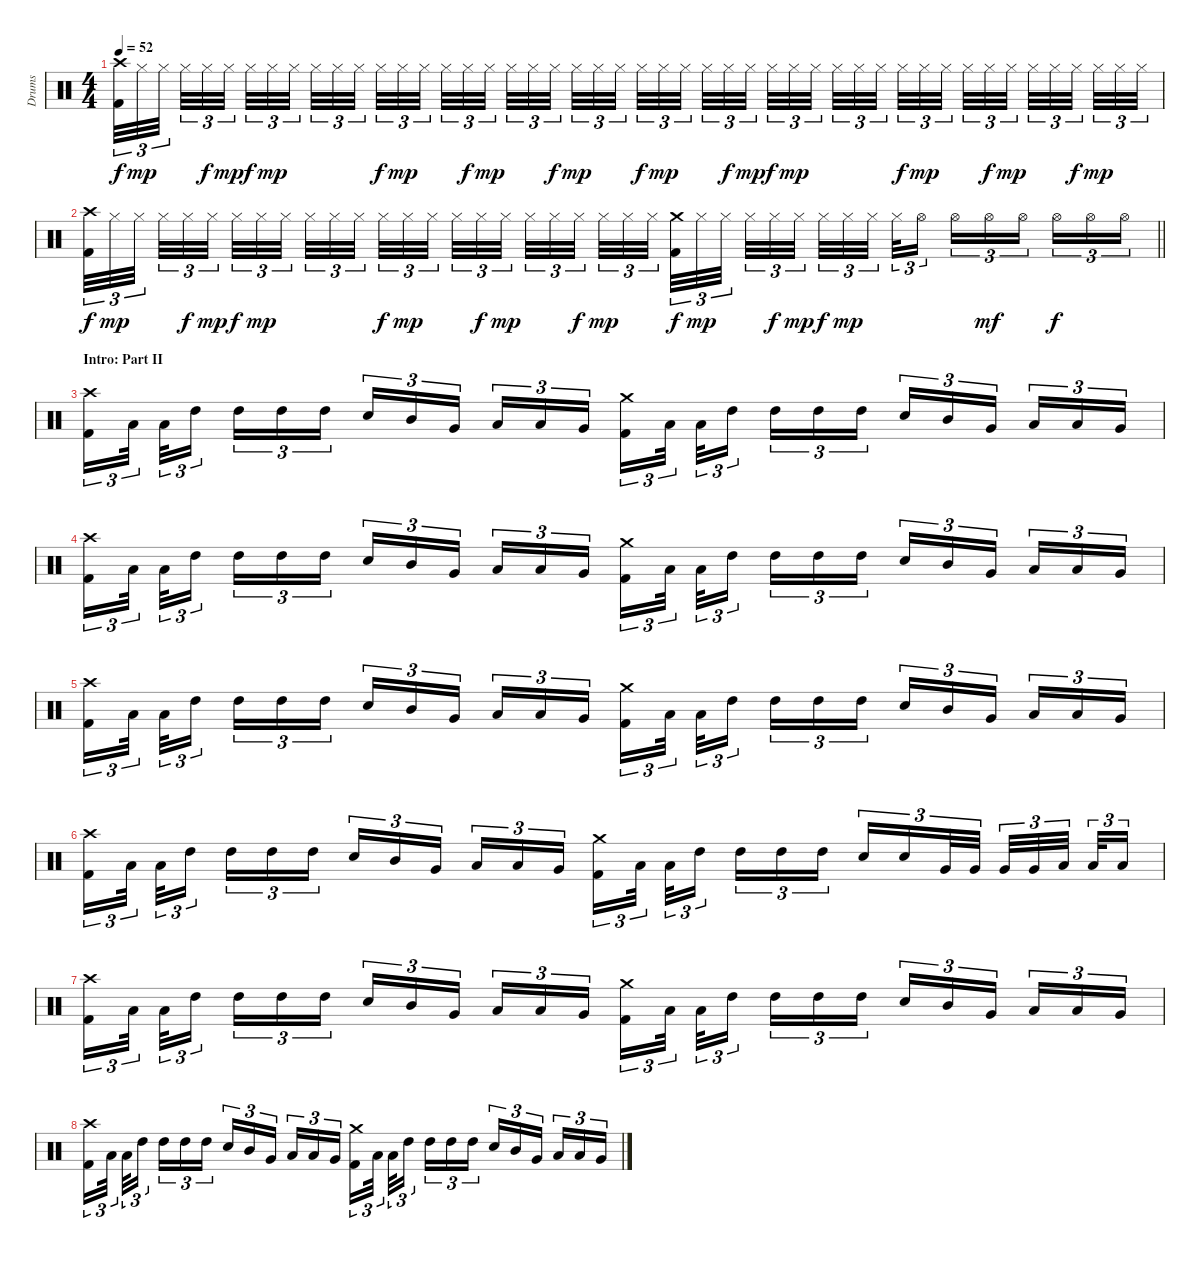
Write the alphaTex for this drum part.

\track ("Drums" "Drums") {instrument percussion}
\staff {score}
\articulation defaults
\ts (4 4)
\tempo 52
\clef neutral
\ks c
("Crash high (hit)" "Kick (hit) 2").32{tu (3 2) dy f} "Hi-Hat (closed)".32{tu (3 2) dy mp} "Hi-Hat (closed)".32{tu (3 2) beam splitsecondary} "Hi-Hat (closed)".32{tu (3 2)} "Hi-Hat (closed)".32{tu (3 2) dy f} "Hi-Hat (closed)".32{tu (3 2) dy mp beam splitsecondary} "Hi-Hat (closed)".32{tu (3 2) dy f} "Hi-Hat (closed)".32{tu (3 2) dy mp} "Hi-Hat (closed)".32{tu (3 2) beam splitsecondary} "Hi-Hat (closed)".32{tu (3 2)} "Hi-Hat (closed)".32{tu (3 2)} "Hi-Hat (closed)".32{tu (3 2)} "Hi-Hat (closed)".32{tu (3 2) dy f} "Hi-Hat (closed)".32{tu (3 2) dy mp} "Hi-Hat (closed)".32{tu (3 2) beam splitsecondary} "Hi-Hat (closed)".32{tu (3 2)} "Hi-Hat (closed)".32{tu (3 2) dy f} "Hi-Hat (closed)".32{tu (3 2) dy mp beam splitsecondary} "Hi-Hat (closed)".32{tu (3 2)} "Hi-Hat (closed)".32{tu (3 2)} "Hi-Hat (closed)".32{tu (3 2) dy f beam splitsecondary} "Hi-Hat (closed)".32{tu (3 2) dy mp} "Hi-Hat (closed)".32{tu (3 2)} "Hi-Hat (closed)".32{tu (3 2)} "Hi-Hat (closed)".32{tu (3 2) dy f} "Hi-Hat (closed)".32{tu (3 2) dy mp} "Hi-Hat (closed)".32{tu (3 2) beam splitsecondary} "Hi-Hat (closed)".32{tu (3 2)} "Hi-Hat (closed)".32{tu (3 2) dy f} "Hi-Hat (closed)".32{tu (3 2) dy mp beam splitsecondary} "Hi-Hat (closed)".32{tu (3 2) dy f} "Hi-Hat (closed)".32{tu (3 2) dy mp} "Hi-Hat (closed)".32{tu (3 2) beam splitsecondary} "Hi-Hat (closed)".32{tu (3 2)} "Hi-Hat (closed)".32{tu (3 2)} "Hi-Hat (closed)".32{tu (3 2)} "Hi-Hat (closed)".32{tu (3 2) dy f} "Hi-Hat (closed)".32{tu (3 2) dy mp} "Hi-Hat (closed)".32{tu (3 2) beam splitsecondary} "Hi-Hat (closed)".32{tu (3 2)} "Hi-Hat (closed)".32{tu (3 2) dy f} "Hi-Hat (closed)".32{tu (3 2) dy mp beam splitsecondary} "Hi-Hat (closed)".32{tu (3 2)} "Hi-Hat (closed)".32{tu (3 2)} "Hi-Hat (closed)".32{tu (3 2) dy f beam splitsecondary} "Hi-Hat (closed)".32{tu (3 2) dy mp} "Hi-Hat (closed)".32{tu (3 2)} "Hi-Hat (closed)".32{tu (3 2)} |
\barLineRight lightlight
("Crash high (hit)" "Kick (hit) 2").32{tu (3 2) dy f} "Hi-Hat (closed)".32{tu (3 2) dy mp} "Hi-Hat (closed)".32{tu (3 2) beam splitsecondary} "Hi-Hat (closed)".32{tu (3 2)} "Hi-Hat (closed)".32{tu (3 2) dy f} "Hi-Hat (closed)".32{tu (3 2) dy mp beam splitsecondary} "Hi-Hat (closed)".32{tu (3 2) dy f} "Hi-Hat (closed)".32{tu (3 2) dy mp} "Hi-Hat (closed)".32{tu (3 2) beam splitsecondary} "Hi-Hat (closed)".32{tu (3 2)} "Hi-Hat (closed)".32{tu (3 2)} "Hi-Hat (closed)".32{tu (3 2)} "Hi-Hat (closed)".32{tu (3 2) dy f} "Hi-Hat (closed)".32{tu (3 2) dy mp} "Hi-Hat (closed)".32{tu (3 2) beam splitsecondary} "Hi-Hat (closed)".32{tu (3 2)} "Hi-Hat (closed)".32{tu (3 2) dy f} "Hi-Hat (closed)".32{tu (3 2) dy mp beam splitsecondary} "Hi-Hat (closed)".32{tu (3 2)} "Hi-Hat (closed)".32{tu (3 2)} "Hi-Hat (closed)".32{tu (3 2) dy f beam splitsecondary} "Hi-Hat (closed)".32{tu (3 2) dy mp} "Hi-Hat (closed)".32{tu (3 2)} "Hi-Hat (closed)".32{tu (3 2)} ("Crash medium (hit)" "Kick (hit) 2").32{tu (3 2) dy f} "Hi-Hat (closed)".32{tu (3 2) dy mp} "Hi-Hat (closed)".32{tu (3 2) beam splitsecondary} "Hi-Hat (closed)".32{tu (3 2)} "Hi-Hat (closed)".32{tu (3 2) dy f} "Hi-Hat (closed)".32{tu (3 2) dy mp beam splitsecondary} "Hi-Hat (closed)".32{tu (3 2) dy f} "Hi-Hat (closed)".32{tu (3 2) dy mp} "Hi-Hat (closed)".32{tu (3 2) beam splitsecondary} "Hi-Hat (closed)".32{tu (3 2)} "Hi-Hat (open)".16{tu (3 2)} "Hi-Hat (open)".16{tu (3 2)} "Hi-Hat (open)".16{tu (3 2) dy mf} "Hi-Hat (open)".16{tu (3 2) beam splitsecondary} "Hi-Hat (open)".16{tu (3 2) dy f} "Hi-Hat (open)".16{tu (3 2)} "Hi-Hat (open)".16{tu (3 2)} |
\section ("" "Intro: Part II")
("Crash high (hit)" "Kick (hit) 2").16{tu (3 2)} "Low Tom (hit)".32{tu (3 2) beam splitsecondary} "Low Tom (hit)".32{tu (3 2)} "High Tom (hit)".16{tu (3 2) beam splitsecondary} "High Tom (hit)".16{tu (3 2)} "High Tom (hit)".16{tu (3 2)} "High Tom (hit)".16{tu (3 2)} "Electric Snare (hit)".16{tu (3 2)} "Mid Tom (hit)".16{tu (3 2)} "Very Low Tom (hit)".16{tu (3 2) beam splitsecondary} "Low Tom (hit)".16{tu (3 2)} "Low Floor Tom (hit)".16{tu (3 2)} "Very Low Tom (hit)".16{tu (3 2)} ("Crash medium (hit)" "Kick (hit) 2").16{tu (3 2)} "Low Tom (hit)".32{tu (3 2) beam splitsecondary} "Low Tom (hit)".32{tu (3 2)} "High Tom (hit)".16{tu (3 2) beam splitsecondary} "High Tom (hit)".16{tu (3 2)} "High Tom (hit)".16{tu (3 2)} "High Tom (hit)".16{tu (3 2)} "Electric Snare (hit)".16{tu (3 2)} "Mid Tom (hit)".16{tu (3 2)} "Very Low Tom (hit)".16{tu (3 2) beam splitsecondary} "Low Tom (hit)".16{tu (3 2)} "Low Floor Tom (hit)".16{tu (3 2)} "Very Low Tom (hit)".16{tu (3 2)} |
("Crash high (hit)" "Kick (hit) 2").16{tu (3 2)} "Low Tom (hit)".32{tu (3 2) beam splitsecondary} "Low Tom (hit)".32{tu (3 2)} "High Tom (hit)".16{tu (3 2) beam splitsecondary} "High Tom (hit)".16{tu (3 2)} "High Tom (hit)".16{tu (3 2)} "High Tom (hit)".16{tu (3 2)} "Electric Snare (hit)".16{tu (3 2)} "Mid Tom (hit)".16{tu (3 2)} "Very Low Tom (hit)".16{tu (3 2) beam splitsecondary} "Low Tom (hit)".16{tu (3 2)} "Low Floor Tom (hit)".16{tu (3 2)} "Very Low Tom (hit)".16{tu (3 2)} ("Crash medium (hit)" "Kick (hit) 2").16{tu (3 2)} "Low Tom (hit)".32{tu (3 2) beam splitsecondary} "Low Tom (hit)".32{tu (3 2)} "High Tom (hit)".16{tu (3 2) beam splitsecondary} "High Tom (hit)".16{tu (3 2)} "High Tom (hit)".16{tu (3 2)} "High Tom (hit)".16{tu (3 2)} "Electric Snare (hit)".16{tu (3 2)} "Mid Tom (hit)".16{tu (3 2)} "Very Low Tom (hit)".16{tu (3 2) beam splitsecondary} "Low Tom (hit)".16{tu (3 2)} "Low Floor Tom (hit)".16{tu (3 2)} "Very Low Tom (hit)".16{tu (3 2)} |
("Crash high (hit)" "Kick (hit) 2").16{tu (3 2)} "Low Tom (hit)".32{tu (3 2) beam splitsecondary} "Low Tom (hit)".32{tu (3 2)} "High Tom (hit)".16{tu (3 2) beam splitsecondary} "High Tom (hit)".16{tu (3 2)} "High Tom (hit)".16{tu (3 2)} "High Tom (hit)".16{tu (3 2)} "Electric Snare (hit)".16{tu (3 2)} "Mid Tom (hit)".16{tu (3 2)} "Very Low Tom (hit)".16{tu (3 2) beam splitsecondary} "Low Tom (hit)".16{tu (3 2)} "Low Floor Tom (hit)".16{tu (3 2)} "Very Low Tom (hit)".16{tu (3 2)} ("Crash medium (hit)" "Kick (hit) 2").16{tu (3 2)} "Low Tom (hit)".32{tu (3 2) beam splitsecondary} "Low Tom (hit)".32{tu (3 2)} "High Tom (hit)".16{tu (3 2) beam splitsecondary} "High Tom (hit)".16{tu (3 2)} "High Tom (hit)".16{tu (3 2)} "High Tom (hit)".16{tu (3 2)} "Electric Snare (hit)".16{tu (3 2)} "Mid Tom (hit)".16{tu (3 2)} "Very Low Tom (hit)".16{tu (3 2) beam splitsecondary} "Low Tom (hit)".16{tu (3 2)} "Low Floor Tom (hit)".16{tu (3 2)} "Very Low Tom (hit)".16{tu (3 2)} |
("Crash high (hit)" "Kick (hit) 2").16{tu (3 2)} "Low Tom (hit)".32{tu (3 2) beam splitsecondary} "Low Tom (hit)".32{tu (3 2)} "High Tom (hit)".16{tu (3 2) beam splitsecondary} "High Tom (hit)".16{tu (3 2)} "High Tom (hit)".16{tu (3 2)} "High Tom (hit)".16{tu (3 2)} "Electric Snare (hit)".16{tu (3 2)} "Mid Tom (hit)".16{tu (3 2)} "Very Low Tom (hit)".16{tu (3 2) beam splitsecondary} "Low Tom (hit)".16{tu (3 2)} "Low Floor Tom (hit)".16{tu (3 2)} "Very Low Tom (hit)".16{tu (3 2)} ("Crash medium (hit)" "Kick (hit) 2").16{tu (3 2)} "Low Tom (hit)".32{tu (3 2) beam splitsecondary} "Low Tom (hit)".32{tu (3 2)} "High Tom (hit)".16{tu (3 2) beam splitsecondary} "High Tom (hit)".16{tu (3 2)} "High Tom (hit)".16{tu (3 2)} "High Tom (hit)".16{tu (3 2)} "Electric Snare (hit)".16{tu (3 2)} "Electric Snare (hit)".16{tu (3 2)} "Very Low Tom (hit)".32{tu (3 2)} "Very Low Tom (hit)".32{tu (3 2) beam splitsecondary} "Very Low Tom (hit)".32{tu (3 2)} "Very Low Tom (hit)".32{tu (3 2)} "Low Tom (hit)".32{tu (3 2) beam splitsecondary} "Low Tom (hit)".32{tu (3 2)} "Low Tom (hit)".16{tu (3 2)} |
("Crash high (hit)" "Kick (hit) 2").16{tu (3 2)} "Low Tom (hit)".32{tu (3 2) beam splitsecondary} "Low Tom (hit)".32{tu (3 2)} "High Tom (hit)".16{tu (3 2) beam splitsecondary} "High Tom (hit)".16{tu (3 2)} "High Tom (hit)".16{tu (3 2)} "High Tom (hit)".16{tu (3 2)} "Electric Snare (hit)".16{tu (3 2)} "Mid Tom (hit)".16{tu (3 2)} "Very Low Tom (hit)".16{tu (3 2) beam splitsecondary} "Low Tom (hit)".16{tu (3 2)} "Low Floor Tom (hit)".16{tu (3 2)} "Very Low Tom (hit)".16{tu (3 2)} ("Crash medium (hit)" "Kick (hit) 2").16{tu (3 2)} "Low Tom (hit)".32{tu (3 2) beam splitsecondary} "Low Tom (hit)".32{tu (3 2)} "High Tom (hit)".16{tu (3 2) beam splitsecondary} "High Tom (hit)".16{tu (3 2)} "High Tom (hit)".16{tu (3 2)} "High Tom (hit)".16{tu (3 2)} "Electric Snare (hit)".16{tu (3 2)} "Mid Tom (hit)".16{tu (3 2)} "Very Low Tom (hit)".16{tu (3 2) beam splitsecondary} "Low Tom (hit)".16{tu (3 2)} "Low Floor Tom (hit)".16{tu (3 2)} "Very Low Tom (hit)".16{tu (3 2)} |
("Crash high (hit)" "Kick (hit) 2").16{tu (3 2)} "Low Tom (hit)".32{tu (3 2) beam splitsecondary} "Low Tom (hit)".32{tu (3 2)} "High Tom (hit)".16{tu (3 2) beam splitsecondary} "High Tom (hit)".16{tu (3 2)} "High Tom (hit)".16{tu (3 2)} "High Tom (hit)".16{tu (3 2)} "Electric Snare (hit)".16{tu (3 2)} "Mid Tom (hit)".16{tu (3 2)} "Very Low Tom (hit)".16{tu (3 2) beam splitsecondary} "Low Tom (hit)".16{tu (3 2)} "Low Floor Tom (hit)".16{tu (3 2)} "Very Low Tom (hit)".16{tu (3 2)} ("Crash medium (hit)" "Kick (hit) 2").16{tu (3 2)} "Low Tom (hit)".32{tu (3 2) beam splitsecondary} "Low Tom (hit)".32{tu (3 2)} "High Tom (hit)".16{tu (3 2) beam splitsecondary} "High Tom (hit)".16{tu (3 2)} "High Tom (hit)".16{tu (3 2)} "High Tom (hit)".16{tu (3 2)} "Electric Snare (hit)".16{tu (3 2)} "Mid Tom (hit)".16{tu (3 2)} "Very Low Tom (hit)".16{tu (3 2) beam splitsecondary} "Low Tom (hit)".16{tu (3 2)} "Low Floor Tom (hit)".16{tu (3 2)} "Very Low Tom (hit)".16{tu (3 2)}
